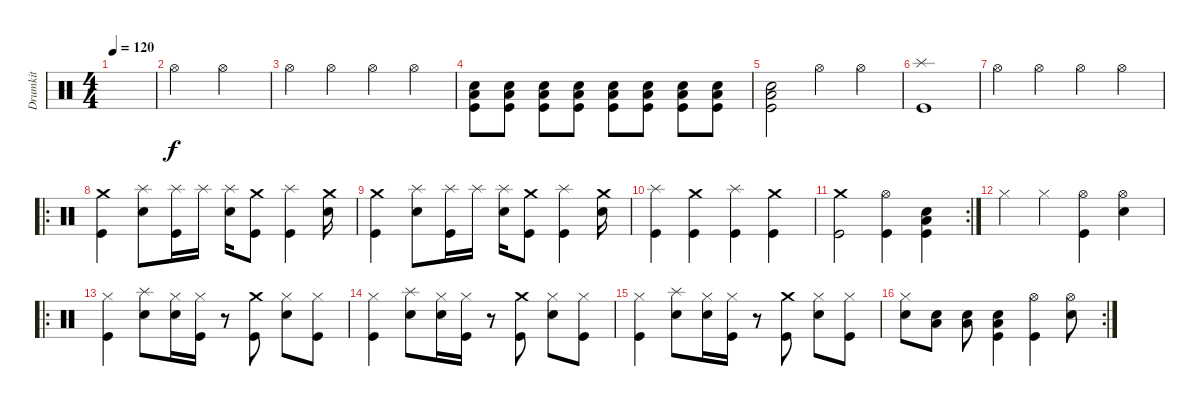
\track ("Drumkit" "Drumkit") {instrument percussion}
\staff {score}
\articulation defaults
\ts (4 4)
\tempo 120
\clef neutral
\ks c
|
"Hi-Hat (open)".2 "Hi-Hat (open)".2 |
"Hi-Hat (open)".4 "Hi-Hat (open)".4 "Hi-Hat (open)".4 "Hi-Hat (open)".4 |
("Low Floor Tom (hit)" "Kick (hit)" "Snare (hit) 2").8 ("Low Floor Tom (hit)" "Snare (hit) 2" "Kick (hit)").8 ("Low Floor Tom (hit)" "Kick (hit)" "Snare (hit) 2").8 ("Low Floor Tom (hit)" "Snare (hit) 2" "Kick (hit)").8 ("Low Floor Tom (hit)" "Kick (hit)" "Snare (hit) 2").8 ("Low Floor Tom (hit)" "Snare (hit) 2" "Kick (hit)").8 ("Low Floor Tom (hit)" "Kick (hit)" "Snare (hit) 2").8 ("Low Floor Tom (hit)" "Snare (hit) 2" "Kick (hit)").8 |
("Kick (hit)" "Low Floor Tom (hit)" "Snare (hit) 2").2 "Hi-Hat (open)".4 "Hi-Hat (open)".4 |
("Kick (hit)" "Splash (hit)").1 |
"Hi-Hat (open)".4 "Hi-Hat (open)".4 "Hi-Hat (open)".4 "Hi-Hat (open)".4 |
\ro
("Kick (hit)" "Crash medium (hit)").4 ("Snare (hit) 2" "Splash (hit)").8 ("Kick (hit)" "Splash (hit)").16 "Splash (hit)".16 ("Snare (hit) 2" "Splash (hit)").16 ("Kick (hit)" "Crash medium (hit)").8 ("Kick (hit)" "Splash (hit)").4 ("Crash medium (hit)" "Snare (hit) 2").16 |
("Kick (hit)" "Crash medium (hit)").4 ("Snare (hit) 2" "Splash (hit)").8 ("Kick (hit)" "Splash (hit)").16 "Splash (hit)".16 ("Snare (hit) 2" "Splash (hit)").16 ("Kick (hit)" "Crash medium (hit)").8 ("Kick (hit)" "Splash (hit)").4 ("Crash medium (hit)" "Snare (hit) 2").16 |
("Kick (hit)" "Splash (hit)").4 ("Kick (hit)" "Crash medium (hit)").4 ("Kick (hit)" "Splash (hit)").4 ("Kick (hit)" "Crash medium (hit)").4 |
\rc 2
("Kick (hit)" "Crash medium (hit)").2 ("Hi-Hat (open)" "Kick (hit)").4 ("Kick (hit)" "Low Floor Tom (hit)" "Snare (hit) 2").4 |
"Hi-Hat (closed)".4 "Hi-Hat (closed)".4 ("Hi-Hat (open)" "Kick (hit)").4 ("Hi-Hat (open)" "Snare (hit) 2").4 |
\ro
("Kick (hit)" "Hi-Hat (closed)").4 ("Snare (hit) 2" "Splash (hit)").8 ("Snare (hit) 2" "Hi-Hat (closed)").16 ("Kick (hit)" "Hi-Hat (closed)").16 r.8 ("Kick (hit)" "Crash medium (hit)").8 ("Snare (hit) 2" "Hi-Hat (closed)").8 ("Kick (hit)" "Hi-Hat (closed)").8 |
("Kick (hit)" "Hi-Hat (closed)").4 ("Snare (hit) 2" "Splash (hit)").8 ("Snare (hit) 2" "Hi-Hat (closed)").16 ("Kick (hit)" "Hi-Hat (closed)").16 r.8 ("Kick (hit)" "Crash medium (hit)").8 ("Snare (hit) 2" "Hi-Hat (closed)").8 ("Kick (hit)" "Hi-Hat (closed)").8 |
("Kick (hit)" "Hi-Hat (closed)").4 ("Snare (hit) 2" "Splash (hit)").8 ("Snare (hit) 2" "Hi-Hat (closed)").16 ("Kick (hit)" "Hi-Hat (closed)").16 r.8 ("Kick (hit)" "Crash medium (hit)").8 ("Snare (hit) 2" "Hi-Hat (closed)").8 ("Kick (hit)" "Hi-Hat (closed)").8 |
\rc 2
("Snare (hit) 2" "Hi-Hat (closed)").8 ("Snare (hit) 2" "Low Floor Tom (hit)").8 ("Low Floor Tom (hit)" "Snare (hit) 2").8 ("Snare (hit) 2" "Low Floor Tom (hit)" "Kick (hit)").4 ("Hi-Hat (open)" "Kick (hit)").4 ("Hi-Hat (open)" "Snare (hit) 2").8
